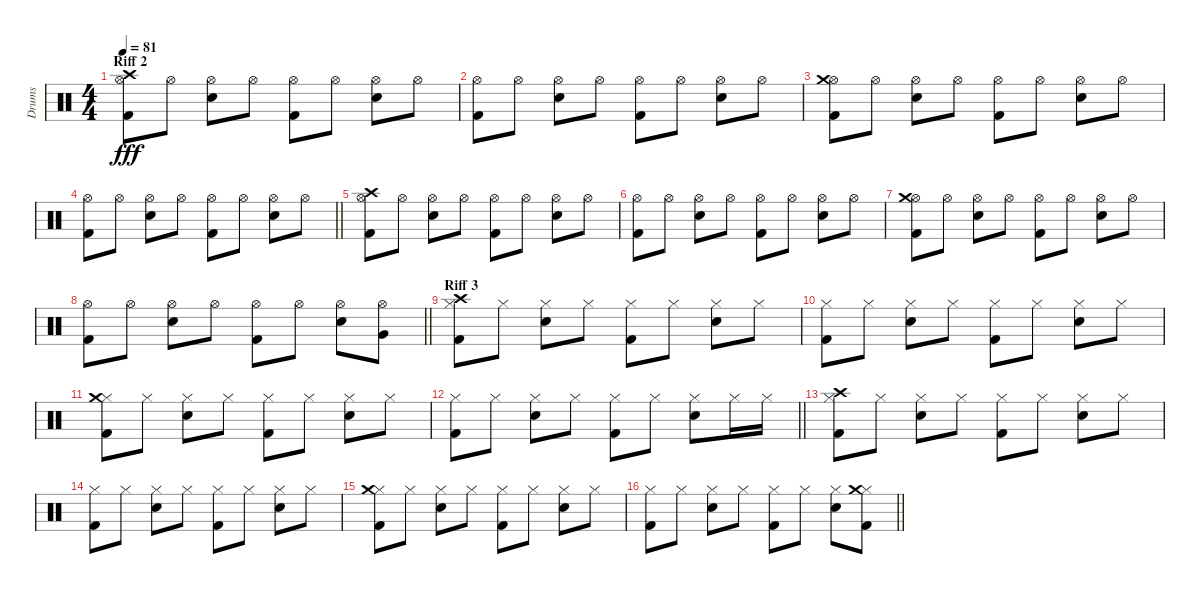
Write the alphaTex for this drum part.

\track ("Drums" "Drums") {instrument percussion}
\staff {score}
\articulation defaults
\ts (4 4)
\section ("" "Riff 2")
\tempo 81
\clef neutral
\ks c
("Hi-Hat (open)" "Crash high (hit)" "Kick (hit) 2").8{dy fff} "Hi-Hat (open)".8 ("Hi-Hat (open)" "Electric Snare (hit)").8 "Hi-Hat (open)".8 ("Hi-Hat (open)" "Kick (hit) 2").8 "Hi-Hat (open)".8 ("Hi-Hat (open)" "Electric Snare (hit)").8 "Hi-Hat (open)".8 |
("Hi-Hat (open)" "Kick (hit) 2").8 "Hi-Hat (open)".8 ("Hi-Hat (open)" "Electric Snare (hit)").8 "Hi-Hat (open)".8 ("Hi-Hat (open)" "Kick (hit) 2").8 "Hi-Hat (open)".8 ("Hi-Hat (open)" "Electric Snare (hit)").8 "Hi-Hat (open)".8 |
("Hi-Hat (open)" "Crash medium (hit)" "Kick (hit) 2").8 "Hi-Hat (open)".8 ("Hi-Hat (open)" "Electric Snare (hit)").8 "Hi-Hat (open)".8 ("Hi-Hat (open)" "Kick (hit) 2").8 "Hi-Hat (open)".8 ("Hi-Hat (open)" "Electric Snare (hit)").8 "Hi-Hat (open)".8 |
\barLineRight lightlight
("Hi-Hat (open)" "Kick (hit) 2").8 "Hi-Hat (open)".8 ("Hi-Hat (open)" "Electric Snare (hit)").8 "Hi-Hat (open)".8 ("Hi-Hat (open)" "Kick (hit) 2").8 "Hi-Hat (open)".8 ("Hi-Hat (open)" "Electric Snare (hit)").8 "Hi-Hat (open)".8 |
("Hi-Hat (open)" "Crash high (hit)" "Kick (hit) 2").8 "Hi-Hat (open)".8 ("Hi-Hat (open)" "Electric Snare (hit)").8 "Hi-Hat (open)".8 ("Hi-Hat (open)" "Kick (hit) 2").8 "Hi-Hat (open)".8 ("Hi-Hat (open)" "Electric Snare (hit)").8 "Hi-Hat (open)".8 |
("Hi-Hat (open)" "Kick (hit) 2").8 "Hi-Hat (open)".8 ("Hi-Hat (open)" "Electric Snare (hit)").8 "Hi-Hat (open)".8 ("Hi-Hat (open)" "Kick (hit) 2").8 "Hi-Hat (open)".8 ("Hi-Hat (open)" "Electric Snare (hit)").8 "Hi-Hat (open)".8 |
("Hi-Hat (open)" "Crash medium (hit)" "Kick (hit) 2").8 "Hi-Hat (open)".8 ("Hi-Hat (open)" "Electric Snare (hit)").8 "Hi-Hat (open)".8 ("Hi-Hat (open)" "Kick (hit) 2").8 "Hi-Hat (open)".8 ("Hi-Hat (open)" "Electric Snare (hit)").8 "Hi-Hat (open)".8 |
\barLineRight lightlight
("Hi-Hat (open)" "Kick (hit) 2").8 "Hi-Hat (open)".8 ("Hi-Hat (open)" "Electric Snare (hit)").8 "Hi-Hat (open)".8 ("Hi-Hat (open)" "Kick (hit) 2").8 "Hi-Hat (open)".8 ("Hi-Hat (open)" "Electric Snare (hit)").8 ("Hi-Hat (open)" "Very Low Tom (hit)").8 |
\section ("" "Riff 3")
("Hi-Hat (closed)" "Crash high (hit)" "Kick (hit) 2").8 "Hi-Hat (closed)".8 ("Hi-Hat (closed)" "Electric Snare (hit)").8 "Hi-Hat (closed)".8 ("Hi-Hat (closed)" "Kick (hit) 2").8 "Hi-Hat (closed)".8 ("Hi-Hat (closed)" "Electric Snare (hit)").8 "Hi-Hat (closed)".8 |
("Hi-Hat (closed)" "Kick (hit) 2").8 "Hi-Hat (closed)".8 ("Hi-Hat (closed)" "Electric Snare (hit)").8 "Hi-Hat (closed)".8 ("Hi-Hat (closed)" "Kick (hit) 2").8 "Hi-Hat (closed)".8 ("Hi-Hat (closed)" "Electric Snare (hit)").8 "Hi-Hat (closed)".8 |
("Hi-Hat (closed)" "Crash medium (hit)" "Kick (hit) 2").8 "Hi-Hat (closed)".8 ("Hi-Hat (closed)" "Electric Snare (hit)").8 "Hi-Hat (closed)".8 ("Hi-Hat (closed)" "Kick (hit) 2").8 "Hi-Hat (closed)".8 ("Hi-Hat (closed)" "Electric Snare (hit)").8 "Hi-Hat (closed)".8 |
\barLineRight lightlight
("Hi-Hat (closed)" "Kick (hit) 2").8 "Hi-Hat (closed)".8 ("Hi-Hat (closed)" "Electric Snare (hit)").8 "Hi-Hat (closed)".8 ("Hi-Hat (closed)" "Kick (hit) 2").8 "Hi-Hat (closed)".8 ("Hi-Hat (closed)" "Electric Snare (hit)").8 "Hi-Hat (closed)".16 "Hi-Hat (closed)".16 |
("Hi-Hat (closed)" "Crash high (hit)" "Kick (hit) 2").8 "Hi-Hat (closed)".8 ("Hi-Hat (closed)" "Electric Snare (hit)").8 "Hi-Hat (closed)".8 ("Hi-Hat (closed)" "Kick (hit) 2").8 "Hi-Hat (closed)".8 ("Hi-Hat (closed)" "Electric Snare (hit)").8 "Hi-Hat (closed)".8 |
("Hi-Hat (closed)" "Kick (hit) 2").8 "Hi-Hat (closed)".8 ("Hi-Hat (closed)" "Electric Snare (hit)").8 "Hi-Hat (closed)".8 ("Hi-Hat (closed)" "Kick (hit) 2").8 "Hi-Hat (closed)".8 ("Hi-Hat (closed)" "Electric Snare (hit)").8 "Hi-Hat (closed)".8 |
("Hi-Hat (closed)" "Crash medium (hit)" "Kick (hit) 2").8 "Hi-Hat (closed)".8 ("Hi-Hat (closed)" "Electric Snare (hit)").8 "Hi-Hat (closed)".8 ("Hi-Hat (closed)" "Kick (hit) 2").8 "Hi-Hat (closed)".8 ("Hi-Hat (closed)" "Electric Snare (hit)").8 "Hi-Hat (closed)".8 |
\barLineRight lightlight
("Hi-Hat (closed)" "Kick (hit) 2").8 "Hi-Hat (closed)".8 ("Hi-Hat (closed)" "Electric Snare (hit)").8 "Hi-Hat (closed)".8 ("Hi-Hat (closed)" "Kick (hit) 2").8 "Hi-Hat (closed)".8 ("Hi-Hat (closed)" "Electric Snare (hit)").8 ("Hi-Hat (closed)" "Crash medium (hit)" "Kick (hit) 2").8
